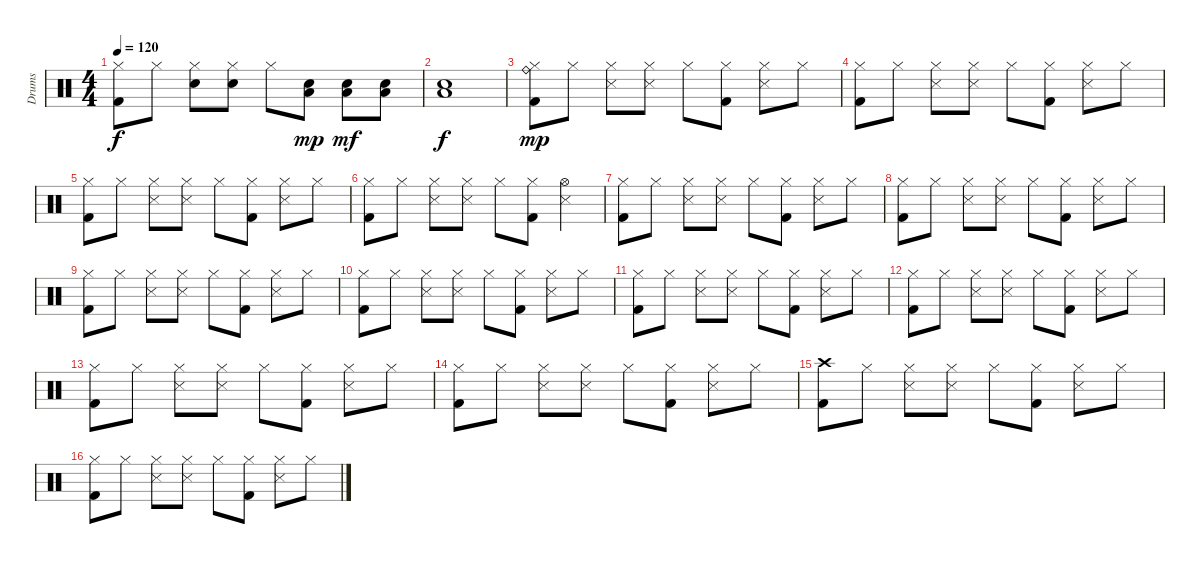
\track ("Drums" "Drums") {instrument percussion}
\staff {score}
\articulation defaults
\ts (4 4)
\tempo 120
\clef neutral
\ks c
("Hi-Hat (closed)" "Kick (hit) 2").8{dy f} "Hi-Hat (closed)".8 ("Hi-Hat (closed)" "Snare (hit) 2").8 ("Hi-Hat (closed)" "Snare (hit) 2").8 "Hi-Hat (closed)".8 ("Low Tom (hit)" "Snare (hit) 2").8{dy mp} ("Low Tom (hit)" "Snare (hit) 2").8{dy mf} ("Low Tom (hit)" "Snare (hit) 2").8 |
("Low Tom (hit)" "Snare (hit) 2").1{dy f} |
("Hi-Hat (closed)" "Ride (bell)" "Kick (hit) 2").8{dy mp} "Hi-Hat (closed)".8 ("Hi-Hat (closed)" "Snare (side stick) 3").8 ("Hi-Hat (closed)" "Snare (side stick) 3").8 "Hi-Hat (closed)".8 ("Hi-Hat (closed)" "Kick (hit) 2").8 ("Hi-Hat (closed)" "Snare (side stick) 3").8 "Hi-Hat (closed)".8 |
("Hi-Hat (closed)" "Kick (hit) 2").8 "Hi-Hat (closed)".8 ("Hi-Hat (closed)" "Snare (side stick) 3").8 ("Hi-Hat (closed)" "Snare (side stick) 3").8 "Hi-Hat (closed)".8 ("Hi-Hat (closed)" "Kick (hit) 2").8 ("Hi-Hat (closed)" "Snare (side stick) 3").8 "Hi-Hat (closed)".8 |
("Hi-Hat (closed)" "Kick (hit) 2").8 "Hi-Hat (closed)".8 ("Hi-Hat (closed)" "Snare (side stick) 3").8 ("Hi-Hat (closed)" "Snare (side stick) 3").8 "Hi-Hat (closed)".8 ("Hi-Hat (closed)" "Kick (hit) 2").8 ("Hi-Hat (closed)" "Snare (side stick) 3").8 "Hi-Hat (closed)".8 |
("Hi-Hat (closed)" "Kick (hit) 2").8 "Hi-Hat (closed)".8 ("Hi-Hat (closed)" "Snare (side stick) 3").8 ("Hi-Hat (closed)" "Snare (side stick) 3").8 "Hi-Hat (closed)".8 ("Hi-Hat (closed)" "Kick (hit) 2").8 ("Hi-Hat (open)" "Snare (side stick) 3").4 |
("Hi-Hat (closed)" "Kick (hit) 2").8 "Hi-Hat (closed)".8 ("Hi-Hat (closed)" "Snare (side stick) 3").8 ("Hi-Hat (closed)" "Snare (side stick) 3").8 "Hi-Hat (closed)".8 ("Hi-Hat (closed)" "Kick (hit) 2").8 ("Hi-Hat (closed)" "Snare (side stick) 3").8 "Hi-Hat (closed)".8 |
("Hi-Hat (closed)" "Kick (hit) 2").8 "Hi-Hat (closed)".8 ("Hi-Hat (closed)" "Snare (side stick) 3").8 ("Hi-Hat (closed)" "Snare (side stick) 3").8 "Hi-Hat (closed)".8 ("Hi-Hat (closed)" "Kick (hit) 2").8 ("Hi-Hat (closed)" "Snare (side stick) 3").8 "Hi-Hat (closed)".8 |
("Hi-Hat (closed)" "Kick (hit) 2").8 "Hi-Hat (closed)".8 ("Hi-Hat (closed)" "Snare (side stick) 3").8 ("Hi-Hat (closed)" "Snare (side stick) 3").8 "Hi-Hat (closed)".8 ("Hi-Hat (closed)" "Kick (hit) 2").8 ("Hi-Hat (closed)" "Snare (side stick) 3").8 "Hi-Hat (closed)".8 |
("Hi-Hat (closed)" "Kick (hit) 2").8 "Hi-Hat (closed)".8 ("Hi-Hat (closed)" "Snare (side stick) 3").8 ("Hi-Hat (closed)" "Snare (side stick) 3").8 "Hi-Hat (closed)".8 ("Hi-Hat (closed)" "Kick (hit) 2").8 ("Hi-Hat (closed)" "Snare (side stick) 3").8 "Hi-Hat (closed)".8 |
("Hi-Hat (closed)" "Kick (hit) 2").8 "Hi-Hat (closed)".8 ("Hi-Hat (closed)" "Snare (side stick) 3").8 ("Hi-Hat (closed)" "Snare (side stick) 3").8 "Hi-Hat (closed)".8 ("Hi-Hat (closed)" "Kick (hit) 2").8 ("Hi-Hat (closed)" "Snare (side stick) 3").8 "Hi-Hat (closed)".8 |
("Hi-Hat (closed)" "Kick (hit) 2").8 "Hi-Hat (closed)".8 ("Hi-Hat (closed)" "Snare (side stick) 3").8 ("Hi-Hat (closed)" "Snare (side stick) 3").8 "Hi-Hat (closed)".8 ("Hi-Hat (closed)" "Kick (hit) 2").8 ("Hi-Hat (closed)" "Snare (side stick) 3").8 "Hi-Hat (closed)".8 |
("Hi-Hat (closed)" "Kick (hit) 2").8 "Hi-Hat (closed)".8 ("Hi-Hat (closed)" "Snare (side stick) 3").8 ("Hi-Hat (closed)" "Snare (side stick) 3").8 "Hi-Hat (closed)".8 ("Hi-Hat (closed)" "Kick (hit) 2").8 ("Hi-Hat (closed)" "Snare (side stick) 3").8 "Hi-Hat (closed)".8 |
("Hi-Hat (closed)" "Kick (hit) 2").8 "Hi-Hat (closed)".8 ("Hi-Hat (closed)" "Snare (side stick) 3").8 ("Hi-Hat (closed)" "Snare (side stick) 3").8 "Hi-Hat (closed)".8 ("Hi-Hat (closed)" "Kick (hit) 2").8 ("Hi-Hat (closed)" "Snare (side stick) 3").8 "Hi-Hat (closed)".8 |
("Crash high (hit)" "Kick (hit) 2").8 "Hi-Hat (closed)".8 ("Hi-Hat (closed)" "Snare (side stick) 3").8 ("Hi-Hat (closed)" "Snare (side stick) 3").8 "Hi-Hat (closed)".8 ("Hi-Hat (closed)" "Kick (hit) 2").8 ("Hi-Hat (closed)" "Snare (side stick) 3").8 "Hi-Hat (closed)".8 |
("Hi-Hat (closed)" "Kick (hit) 2").8 "Hi-Hat (closed)".8 ("Hi-Hat (closed)" "Snare (side stick) 3").8 ("Hi-Hat (closed)" "Snare (side stick) 3").8 "Hi-Hat (closed)".8 ("Hi-Hat (closed)" "Kick (hit) 2").8 ("Hi-Hat (closed)" "Snare (side stick) 3").8 "Hi-Hat (closed)".8
